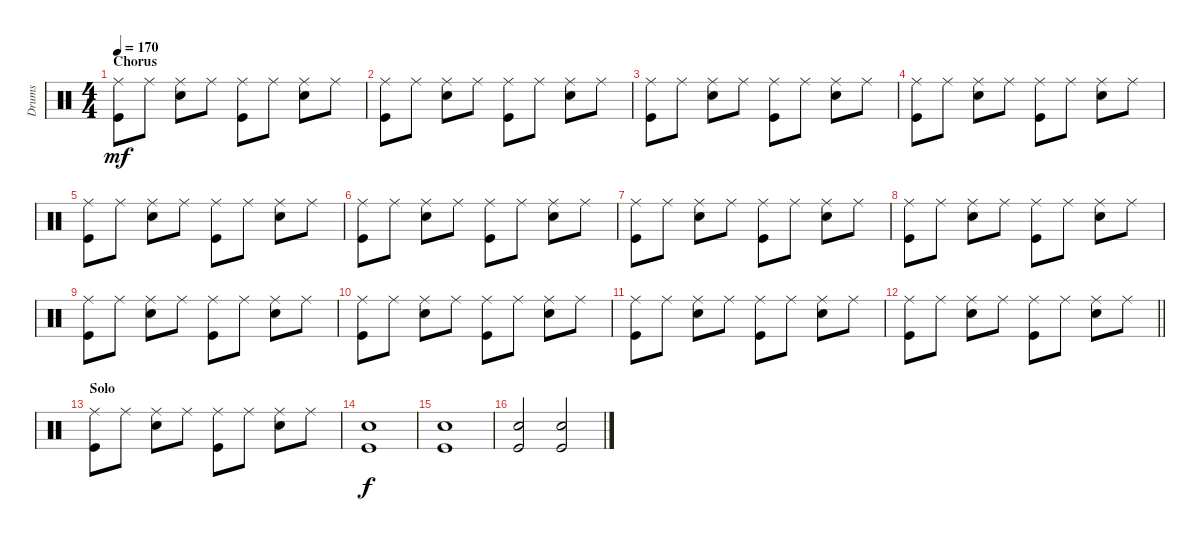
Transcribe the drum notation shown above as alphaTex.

\track ("Drums" "Drums") {instrument percussion}
\staff {score}
\articulation defaults
\ts (4 4)
\section ("" "Chorus")
\tempo 170
\clef neutral
\ks c
("Ride (middle)" "Kick (hit)").8{dy mf} "Ride (middle)".8 ("Ride (middle)" "Snare (hit) 2").8 "Ride (middle)".8 ("Ride (middle)" "Kick (hit)").8 "Ride (middle)".8 ("Ride (middle)" "Snare (hit) 2").8 "Ride (middle)".8 |
("Ride (middle)" "Kick (hit)").8 "Ride (middle)".8 ("Ride (middle)" "Snare (hit) 2").8 "Ride (middle)".8 ("Ride (middle)" "Kick (hit)").8 "Ride (middle)".8 ("Ride (middle)" "Snare (hit) 2").8 "Ride (middle)".8 |
("Ride (middle)" "Kick (hit)").8 "Ride (middle)".8 ("Ride (middle)" "Snare (hit) 2").8 "Ride (middle)".8 ("Ride (middle)" "Kick (hit)").8 "Ride (middle)".8 ("Ride (middle)" "Snare (hit) 2").8 "Ride (middle)".8 |
("Ride (middle)" "Kick (hit)").8 "Ride (middle)".8 ("Ride (middle)" "Snare (hit) 2").8 "Ride (middle)".8 ("Ride (middle)" "Kick (hit)").8 "Ride (middle)".8 ("Ride (middle)" "Snare (hit) 2").8 "Ride (middle)".8 |
("Ride (middle)" "Kick (hit)").8 "Ride (middle)".8 ("Ride (middle)" "Snare (hit) 2").8 "Ride (middle)".8 ("Ride (middle)" "Kick (hit)").8 "Ride (middle)".8 ("Ride (middle)" "Snare (hit) 2").8 "Ride (middle)".8 |
("Ride (middle)" "Kick (hit)").8 "Ride (middle)".8 ("Ride (middle)" "Snare (hit) 2").8 "Ride (middle)".8 ("Ride (middle)" "Kick (hit)").8 "Ride (middle)".8 ("Ride (middle)" "Snare (hit) 2").8 "Ride (middle)".8 |
("Ride (middle)" "Kick (hit)").8 "Ride (middle)".8 ("Ride (middle)" "Snare (hit) 2").8 "Ride (middle)".8 ("Ride (middle)" "Kick (hit)").8 "Ride (middle)".8 ("Ride (middle)" "Snare (hit) 2").8 "Ride (middle)".8 |
("Ride (middle)" "Kick (hit)").8 "Ride (middle)".8 ("Ride (middle)" "Snare (hit) 2").8 "Ride (middle)".8 ("Ride (middle)" "Kick (hit)").8 "Ride (middle)".8 ("Ride (middle)" "Snare (hit) 2").8 "Ride (middle)".8 |
("Ride (middle)" "Kick (hit)").8 "Ride (middle)".8 ("Ride (middle)" "Snare (hit) 2").8 "Ride (middle)".8 ("Ride (middle)" "Kick (hit)").8 "Ride (middle)".8 ("Ride (middle)" "Snare (hit) 2").8 "Ride (middle)".8 |
("Ride (middle)" "Kick (hit)").8 "Ride (middle)".8 ("Ride (middle)" "Snare (hit) 2").8 "Ride (middle)".8 ("Ride (middle)" "Kick (hit)").8 "Ride (middle)".8 ("Ride (middle)" "Snare (hit) 2").8 "Ride (middle)".8 |
("Ride (middle)" "Kick (hit)").8 "Ride (middle)".8 ("Ride (middle)" "Snare (hit) 2").8 "Ride (middle)".8 ("Ride (middle)" "Kick (hit)").8 "Ride (middle)".8 ("Ride (middle)" "Snare (hit) 2").8 "Ride (middle)".8 |
\barLineRight lightlight
("Ride (middle)" "Kick (hit)").8 "Ride (middle)".8 ("Ride (middle)" "Snare (hit) 2").8 "Ride (middle)".8 ("Ride (middle)" "Kick (hit)").8 "Ride (middle)".8 ("Ride (middle)" "Snare (hit) 2").8 "Ride (middle)".8 |
\section ("" "Solo")
("Ride (middle)" "Kick (hit)").8 "Ride (middle)".8 ("Ride (middle)" "Snare (hit) 2").8 "Ride (middle)".8 ("Ride (middle)" "Kick (hit)").8 "Ride (middle)".8 ("Ride (middle)" "Snare (hit) 2").8 "Ride (middle)".8 |
("Snare (hit) 2" "Kick (hit)").1{dy f} |
("Snare (hit) 2" "Kick (hit)").1 |
("Snare (hit) 2" "Kick (hit)").2 ("Snare (hit) 2" "Kick (hit)").2
